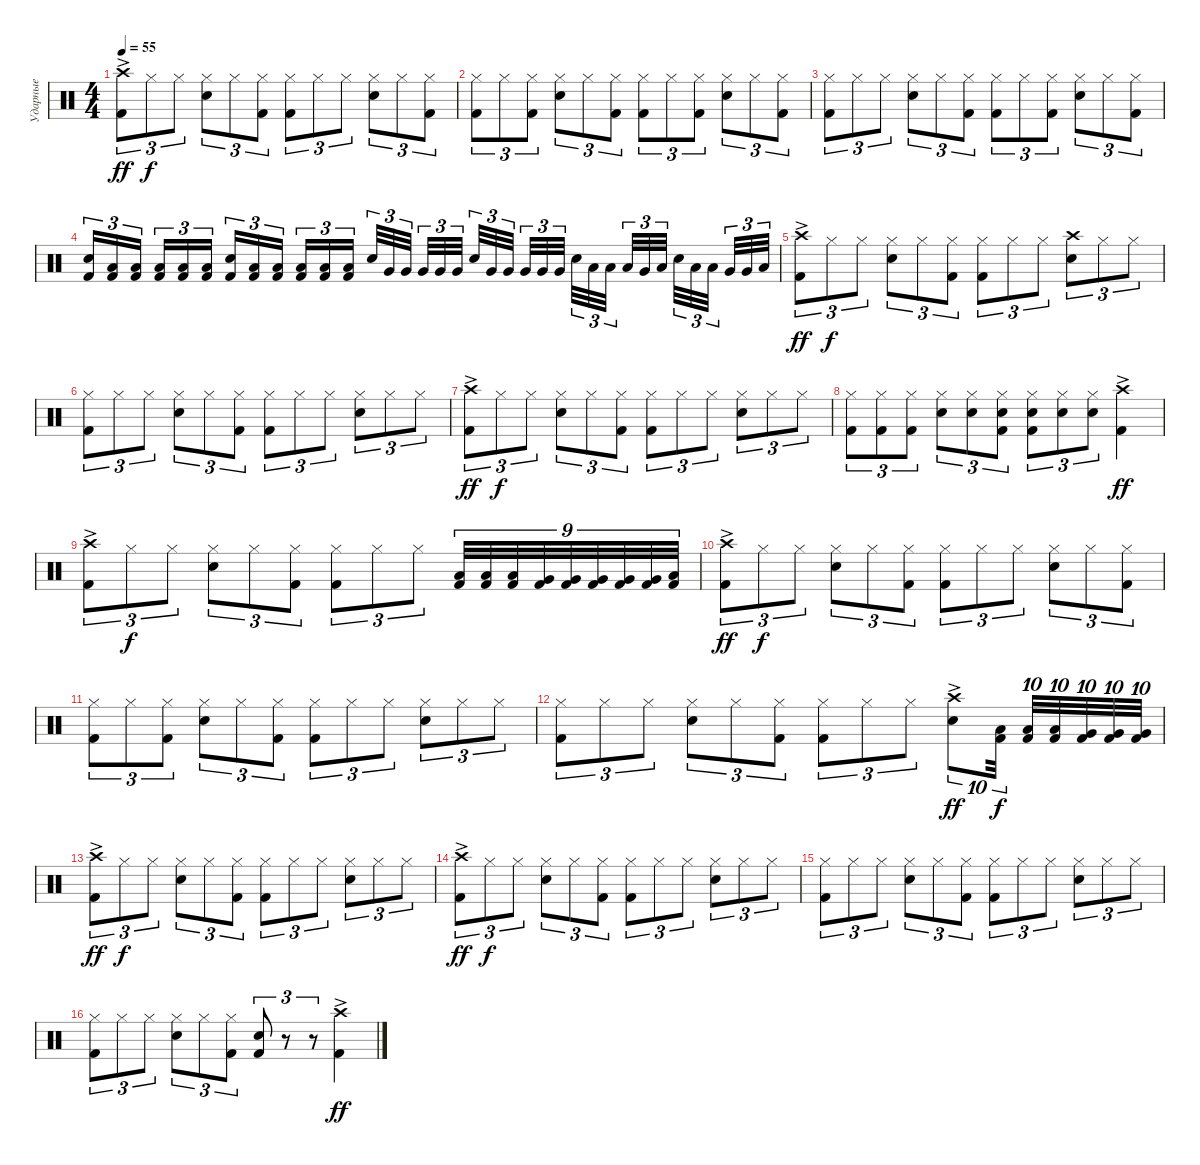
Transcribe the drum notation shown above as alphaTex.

\track ("Ударные" "Ударные") {instrument percussion}
\staff
\articulation defaults
\ts (4 4)
\tempo 55
\clef neutral
\ks c
("Kick (hit) 2" "Crash high (hit)"{ac}).8{tu (3 2) dy ff} "Hi-Hat (closed)".8{tu (3 2) dy f} "Hi-Hat (closed)".8{tu (3 2)} ("Snare (hit) 2" "Hi-Hat (closed)").8{tu (3 2)} "Hi-Hat (closed)".8{tu (3 2)} ("Kick (hit) 2" "Hi-Hat (closed)").8{tu (3 2)} ("Kick (hit) 2" "Hi-Hat (closed)").8{tu (3 2)} "Hi-Hat (closed)".8{tu (3 2)} "Hi-Hat (closed)".8{tu (3 2)} ("Snare (hit) 2" "Hi-Hat (closed)").8{tu (3 2)} "Hi-Hat (closed)".8{tu (3 2)} ("Kick (hit) 2" "Hi-Hat (closed)").8{tu (3 2)} |
("Kick (hit) 2" "Hi-Hat (closed)").8{tu (3 2)} "Hi-Hat (closed)".8{tu (3 2)} ("Kick (hit) 2" "Hi-Hat (closed)").8{tu (3 2)} ("Snare (hit) 2" "Hi-Hat (closed)").8{tu (3 2)} "Hi-Hat (closed)".8{tu (3 2)} ("Kick (hit) 2" "Hi-Hat (closed)").8{tu (3 2)} ("Kick (hit) 2" "Hi-Hat (closed)").8{tu (3 2)} "Hi-Hat (closed)".8{tu (3 2)} ("Kick (hit) 2" "Hi-Hat (closed)").8{tu (3 2)} ("Snare (hit) 2" "Hi-Hat (closed)").8{tu (3 2)} "Hi-Hat (closed)".8{tu (3 2)} ("Kick (hit) 2" "Hi-Hat (closed)").8{tu (3 2)} |
("Kick (hit) 2" "Hi-Hat (closed)").8{tu (3 2)} "Hi-Hat (closed)".8{tu (3 2)} "Hi-Hat (closed)".8{tu (3 2)} ("Snare (hit) 2" "Hi-Hat (closed)").8{tu (3 2)} "Hi-Hat (closed)".8{tu (3 2)} ("Kick (hit) 2" "Hi-Hat (closed)").8{tu (3 2)} ("Kick (hit) 2" "Hi-Hat (closed)").8{tu (3 2)} "Hi-Hat (closed)".8{tu (3 2)} ("Kick (hit) 2" "Hi-Hat (closed)").8{tu (3 2)} ("Snare (hit) 2" "Hi-Hat (closed)").8{tu (3 2)} "Hi-Hat (closed)".8{tu (3 2)} ("Kick (hit) 2" "Hi-Hat (closed)").8{tu (3 2)} |
("Kick (hit) 2" "Snare (hit) 2").16{tu (3 2)} ("Kick (hit) 2" "Low Floor Tom (hit)").16{tu (3 2)} ("Kick (hit) 2" "Low Floor Tom (hit)").16{tu (3 2) beam splitsecondary} ("Kick (hit) 2" "Low Floor Tom (hit)").16{tu (3 2)} ("Kick (hit) 2" "Low Floor Tom (hit)").16{tu (3 2)} ("Kick (hit) 2" "Low Floor Tom (hit)").16{tu (3 2)} ("Kick (hit) 2" "Snare (hit) 2").16{tu (3 2)} ("Kick (hit) 2" "Low Floor Tom (hit)").16{tu (3 2)} ("Kick (hit) 2" "Low Floor Tom (hit)").16{tu (3 2) beam splitsecondary} ("Kick (hit) 2" "Low Floor Tom (hit)").16{tu (3 2)} ("Kick (hit) 2" "Low Floor Tom (hit)").16{tu (3 2)} ("Kick (hit) 2" "Low Floor Tom (hit)").16{tu (3 2)} "Snare (hit) 2".32{tu (3 2)} "Very Low Tom (hit)".32{tu (3 2)} "Very Low Tom (hit)".32{tu (3 2) beam splitsecondary} "Very Low Tom (hit)".32{tu (3 2)} "Very Low Tom (hit)".32{tu (3 2)} "Very Low Tom (hit)".32{tu (3 2) beam splitsecondary} "Electric Snare (hit)".32{tu (3 2)} "Very Low Tom (hit)".32{tu (3 2)} "Very Low Tom (hit)".32{tu (3 2) beam splitsecondary} "Very Low Tom (hit)".32{tu (3 2)} "Very Low Tom (hit)".32{tu (3 2)} "Very Low Tom (hit)".32{tu (3 2)} "Snare (hit) 2".32{tu (3 2)} "Low Tom (hit)".32{tu (3 2)} "Low Tom (hit)".32{tu (3 2) beam splitsecondary} "Low Tom (hit)".32{tu (3 2)} "Very Low Tom (hit)".32{tu (3 2)} "Low Floor Tom (hit)".32{tu (3 2) beam splitsecondary} "Snare (hit) 2".32{tu (3 2)} "Low Tom (hit)".32{tu (3 2)} "Low Tom (hit)".32{tu (3 2) beam splitsecondary} "Very Low Tom (hit)".32{tu (3 2)} "Very Low Tom (hit)".32{tu (3 2)} "Low Floor Tom (hit)".32{tu (3 2)} |
("Kick (hit) 2" "Crash high (hit)"{ac}).8{tu (3 2) dy ff} "Hi-Hat (closed)".8{tu (3 2) dy f} "Hi-Hat (closed)".8{tu (3 2)} ("Snare (hit) 2" "Hi-Hat (closed)").8{tu (3 2)} "Hi-Hat (closed)".8{tu (3 2)} ("Kick (hit) 2" "Hi-Hat (closed)").8{tu (3 2)} ("Kick (hit) 2" "Hi-Hat (closed)").8{tu (3 2)} "Hi-Hat (closed)".8{tu (3 2)} "Hi-Hat (closed)".8{tu (3 2)} ("Snare (hit) 2" "Crash high (hit)").8{tu (3 2)} "Hi-Hat (closed)".8{tu (3 2)} "Hi-Hat (closed)".8{tu (3 2)} |
("Kick (hit) 2" "Hi-Hat (closed)").8{tu (3 2)} "Hi-Hat (closed)".8{tu (3 2)} "Hi-Hat (closed)".8{tu (3 2)} ("Snare (hit) 2" "Hi-Hat (closed)").8{tu (3 2)} "Hi-Hat (closed)".8{tu (3 2)} ("Kick (hit) 2" "Hi-Hat (closed)").8{tu (3 2)} ("Kick (hit) 2" "Hi-Hat (closed)").8{tu (3 2)} "Hi-Hat (closed)".8{tu (3 2)} "Hi-Hat (closed)".8{tu (3 2)} ("Snare (hit) 2" "Hi-Hat (closed)").8{tu (3 2)} "Hi-Hat (closed)".8{tu (3 2)} "Hi-Hat (closed)".8{tu (3 2)} |
("Kick (hit) 2" "Crash high (hit)"{ac}).8{tu (3 2) dy ff} "Hi-Hat (closed)".8{tu (3 2) dy f} "Hi-Hat (closed)".8{tu (3 2)} ("Snare (hit) 2" "Hi-Hat (closed)").8{tu (3 2)} "Hi-Hat (closed)".8{tu (3 2)} ("Kick (hit) 2" "Hi-Hat (closed)").8{tu (3 2)} ("Kick (hit) 2" "Hi-Hat (closed)").8{tu (3 2)} "Hi-Hat (closed)".8{tu (3 2)} "Hi-Hat (closed)".8{tu (3 2)} ("Snare (hit) 2" "Hi-Hat (closed)").8{tu (3 2)} "Hi-Hat (closed)".8{tu (3 2)} "Hi-Hat (closed)".8{tu (3 2)} |
("Kick (hit) 2" "Hi-Hat (closed)").8{tu (3 2)} ("Kick (hit) 2" "Hi-Hat (closed)").8{tu (3 2)} ("Kick (hit) 2" "Hi-Hat (closed)").8{tu (3 2)} ("Snare (hit) 2" "Hi-Hat (closed)").8{tu (3 2)} ("Snare (hit) 2" "Hi-Hat (closed)").8{tu (3 2)} ("Kick (hit) 2" "Snare (hit) 2" "Hi-Hat (closed)").8{tu (3 2)} ("Kick (hit) 2" "Snare (hit) 2" "Hi-Hat (closed)").8{tu (3 2)} ("Snare (hit) 2" "Hi-Hat (closed)").8{tu (3 2)} ("Snare (hit) 2" "Hi-Hat (closed)").8{tu (3 2)} ("Kick (hit) 2" "Crash high (hit)"{ac}).4{dy ff} |
("Kick (hit) 2" "Crash high (hit)"{ac}).8{tu (3 2)} "Hi-Hat (closed)".8{tu (3 2) dy f} "Hi-Hat (closed)".8{tu (3 2)} ("Snare (hit) 2" "Hi-Hat (closed)").8{tu (3 2)} "Hi-Hat (closed)".8{tu (3 2)} ("Kick (hit) 2" "Hi-Hat (closed)").8{tu (3 2)} ("Kick (hit) 2" "Hi-Hat (closed)").8{tu (3 2)} "Hi-Hat (closed)".8{tu (3 2)} "Hi-Hat (closed)".8{tu (3 2)} ("Kick (hit) 2" "Low Tom (hit)").32{tu (9 8)} ("Kick (hit) 2" "Low Tom (hit)").32{tu (9 8)} ("Kick (hit) 2" "Low Tom (hit)").32{tu (9 8)} ("Kick (hit) 2" "Very Low Tom (hit)").32{tu (9 8)} ("Kick (hit) 2" "Very Low Tom (hit)").32{tu (9 8)} ("Kick (hit) 2" "Very Low Tom (hit)").32{tu (9 8)} ("Kick (hit) 2" "Very Low Tom (hit)").32{tu (9 8)} ("Kick (hit) 2" "Very Low Tom (hit)").32{tu (9 8)} ("Kick (hit) 2" "Low Floor Tom (hit)").32{tu (9 8)} |
("Kick (hit) 2" "Crash high (hit)"{ac}).8{tu (3 2) dy ff} "Hi-Hat (closed)".8{tu (3 2) dy f} "Hi-Hat (closed)".8{tu (3 2)} ("Snare (hit) 2" "Hi-Hat (closed)").8{tu (3 2)} "Hi-Hat (closed)".8{tu (3 2)} ("Kick (hit) 2" "Hi-Hat (closed)").8{tu (3 2)} ("Kick (hit) 2" "Hi-Hat (closed)").8{tu (3 2)} "Hi-Hat (closed)".8{tu (3 2)} "Hi-Hat (closed)".8{tu (3 2)} ("Snare (hit) 2" "Hi-Hat (closed)").8{tu (3 2)} "Hi-Hat (closed)".8{tu (3 2)} ("Kick (hit) 2" "Hi-Hat (closed)").8{tu (3 2)} |
("Kick (hit) 2" "Hi-Hat (closed)").8{tu (3 2)} "Hi-Hat (closed)".8{tu (3 2)} ("Kick (hit) 2" "Hi-Hat (closed)").8{tu (3 2)} ("Snare (hit) 2" "Hi-Hat (closed)").8{tu (3 2)} "Hi-Hat (closed)".8{tu (3 2)} ("Kick (hit) 2" "Hi-Hat (closed)").8{tu (3 2)} ("Kick (hit) 2" "Hi-Hat (closed)").8{tu (3 2)} "Hi-Hat (closed)".8{tu (3 2)} "Hi-Hat (closed)".8{tu (3 2)} ("Snare (hit) 2" "Hi-Hat (closed)").8{tu (3 2)} "Hi-Hat (closed)".8{tu (3 2)} "Hi-Hat (closed)".8{tu (3 2)} |
("Kick (hit) 2" "Hi-Hat (closed)").8{tu (3 2)} "Hi-Hat (closed)".8{tu (3 2)} "Hi-Hat (closed)".8{tu (3 2)} ("Snare (hit) 2" "Hi-Hat (closed)").8{tu (3 2)} "Hi-Hat (closed)".8{tu (3 2)} ("Kick (hit) 2" "Hi-Hat (closed)").8{tu (3 2)} ("Kick (hit) 2" "Hi-Hat (closed)").8{tu (3 2)} "Hi-Hat (closed)".8{tu (3 2)} "Hi-Hat (closed)".8{tu (3 2)} ("Snare (hit) 2" "Crash high (hit)"{ac}).8{tu (10 8) dy ff} ("Kick (hit) 2" "Low Tom (hit)").32{tu (10 8) dy f beam splitsecondary} ("Kick (hit) 2" "Low Tom (hit)").32{tu (10 8)} ("Kick (hit) 2" "Low Tom (hit)").32{tu (10 8)} ("Kick (hit) 2" "Very Low Tom (hit)").32{tu (10 8)} ("Kick (hit) 2" "Very Low Tom (hit)").32{tu (10 8)} ("Kick (hit) 2" "Very Low Tom (hit)").32{tu (10 8)} |
("Kick (hit) 2" "Crash high (hit)"{ac}).8{tu (3 2) dy ff} "Hi-Hat (closed)".8{tu (3 2) dy f} "Hi-Hat (closed)".8{tu (3 2)} ("Snare (hit) 2" "Hi-Hat (closed)").8{tu (3 2)} "Hi-Hat (closed)".8{tu (3 2)} ("Kick (hit) 2" "Hi-Hat (closed)").8{tu (3 2)} ("Kick (hit) 2" "Hi-Hat (closed)").8{tu (3 2)} "Hi-Hat (closed)".8{tu (3 2)} "Hi-Hat (closed)".8{tu (3 2)} ("Snare (hit) 2" "Hi-Hat (closed)").8{tu (3 2)} "Hi-Hat (closed)".8{tu (3 2)} "Hi-Hat (closed)".8{tu (3 2)} |
("Kick (hit) 2" "Crash high (hit)"{ac}).8{tu (3 2) dy ff} "Hi-Hat (closed)".8{tu (3 2) dy f} "Hi-Hat (closed)".8{tu (3 2)} ("Snare (hit) 2" "Hi-Hat (closed)").8{tu (3 2)} "Hi-Hat (closed)".8{tu (3 2)} ("Kick (hit) 2" "Hi-Hat (closed)").8{tu (3 2)} ("Kick (hit) 2" "Hi-Hat (closed)").8{tu (3 2)} "Hi-Hat (closed)".8{tu (3 2)} "Hi-Hat (closed)".8{tu (3 2)} ("Snare (hit) 2" "Hi-Hat (closed)").8{tu (3 2)} "Hi-Hat (closed)".8{tu (3 2)} "Hi-Hat (closed)".8{tu (3 2)} |
("Kick (hit) 2" "Hi-Hat (closed)").8{tu (3 2)} "Hi-Hat (closed)".8{tu (3 2)} "Hi-Hat (closed)".8{tu (3 2)} ("Snare (hit) 2" "Hi-Hat (closed)").8{tu (3 2)} "Hi-Hat (closed)".8{tu (3 2)} ("Kick (hit) 2" "Hi-Hat (closed)").8{tu (3 2)} ("Kick (hit) 2" "Hi-Hat (closed)").8{tu (3 2)} "Hi-Hat (closed)".8{tu (3 2)} "Hi-Hat (closed)".8{tu (3 2)} ("Snare (hit) 2" "Hi-Hat (closed)").8{tu (3 2)} "Hi-Hat (closed)".8{tu (3 2)} "Hi-Hat (closed)".8{tu (3 2)} |
("Kick (hit) 2" "Hi-Hat (closed)").8{tu (3 2)} "Hi-Hat (closed)".8{tu (3 2)} "Hi-Hat (closed)".8{tu (3 2)} ("Snare (hit) 2" "Hi-Hat (closed)").8{tu (3 2)} "Hi-Hat (closed)".8{tu (3 2)} ("Kick (hit) 2" "Hi-Hat (closed)").8{tu (3 2)} ("Kick (hit) 2" "Snare (hit) 2").8{tu (3 2)} r.8{tu (3 2)} r.8{tu (3 2)} ("Kick (hit) 2" "Crash high (hit)"{ac}).4{dy ff}
